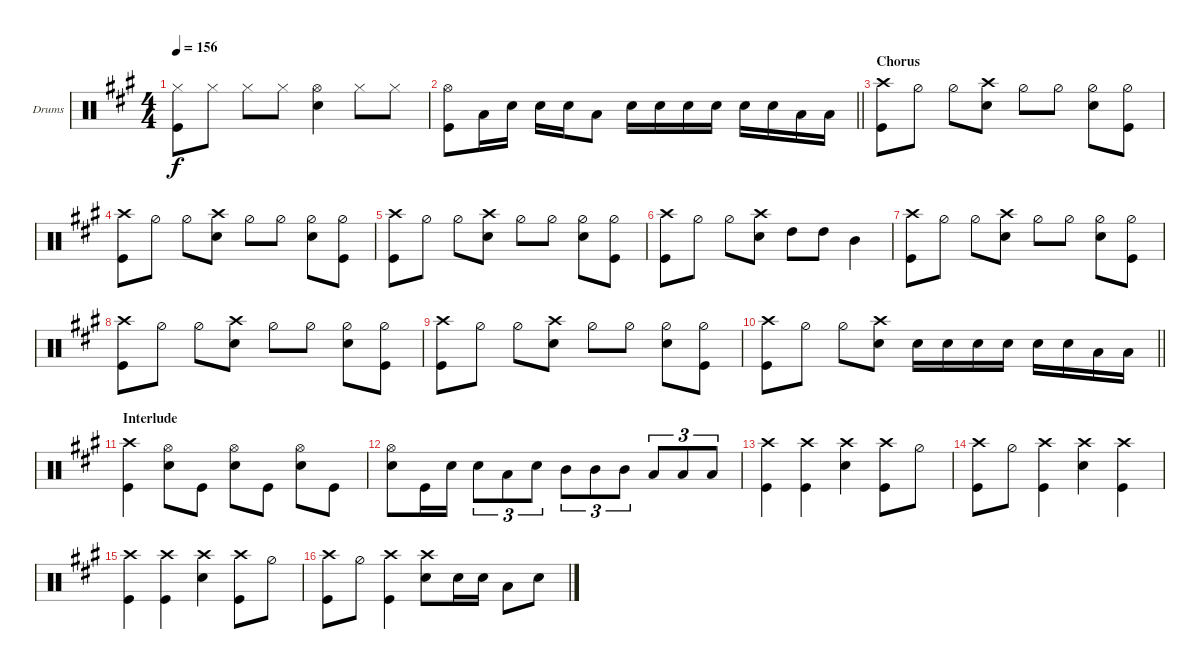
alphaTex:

\defaultSystemsLayout 4
\bracketExtendMode groupsimilarinstruments
\firstSystemTrackNameOrientation horizontal
\otherSystemsTrackNameOrientation horizontal
\track ("Drums" "Drums") {instrument percussion}
\staff {score}
\articulation defaults
\ts (4 4)
\tempo 156
\clef neutral
\ks a
("Kick (hit)" "Hi-Hat (closed)").8{dy f} "Hi-Hat (closed)".8 "Hi-Hat (closed)".8 "Hi-Hat (closed)".8 ("Hi-Hat (open)" "Snare (hit) 2").4 "Hi-Hat (closed)".8 "Hi-Hat (closed)".8 |
\barLineRight lightlight
("Hi-Hat (open)" "Kick (hit)").8 "Low Tom (hit)".16 "Snare (hit) 2".16 "Snare (hit) 2".16 "Snare (hit) 2".16 "Low Tom (hit)".8 "Snare (hit) 2".16 "Snare (hit) 2".16 "Snare (hit) 2".16 "Snare (hit) 2".16 "Snare (hit) 2".16 "Snare (hit) 2".16 "Low Tom (hit)".16 "Low Tom (hit)".16 |
\section ("" "Chorus")
("Kick (hit)" "Crash high (hit)").8 "Hi-Hat (half)".8 "Hi-Hat (half)".8 ("Snare (hit) 2" "Crash high (hit)").8 "Hi-Hat (half)".8 "Hi-Hat (half)".8 ("Snare (hit) 2" "Hi-Hat (half)").8 ("Hi-Hat (half)" "Kick (hit)").8 |
("Kick (hit)" "Crash high (hit)").8 "Hi-Hat (half)".8 "Hi-Hat (half)".8 ("Snare (hit) 2" "Crash high (hit)").8 "Hi-Hat (half)".8 "Hi-Hat (half)".8 ("Snare (hit) 2" "Hi-Hat (half)").8 ("Hi-Hat (half)" "Kick (hit)").8 |
("Kick (hit)" "Crash high (hit)").8 "Hi-Hat (half)".8 "Hi-Hat (half)".8 ("Snare (hit) 2" "Crash high (hit)").8 "Hi-Hat (half)".8 "Hi-Hat (half)".8 ("Snare (hit) 2" "Hi-Hat (half)").8 ("Hi-Hat (half)" "Kick (hit)").8 |
("Kick (hit)" "Crash high (hit)").8 "Hi-Hat (half)".8 "Hi-Hat (half)".8 ("Snare (hit) 2" "Crash high (hit)").8 "High Tom (hit)".8 "High Tom (hit)".8 "Mid Tom (hit)".4 |
("Kick (hit)" "Crash high (hit)").8 "Hi-Hat (half)".8 "Hi-Hat (half)".8 ("Snare (hit) 2" "Crash high (hit)").8 "Hi-Hat (half)".8 "Hi-Hat (half)".8 ("Snare (hit) 2" "Hi-Hat (half)").8 ("Hi-Hat (half)" "Kick (hit)").8 |
("Kick (hit)" "Crash high (hit)").8 "Hi-Hat (half)".8 "Hi-Hat (half)".8 ("Snare (hit) 2" "Crash high (hit)").8 "Hi-Hat (half)".8 "Hi-Hat (half)".8 ("Snare (hit) 2" "Hi-Hat (half)").8 ("Hi-Hat (half)" "Kick (hit)").8 |
("Kick (hit)" "Crash high (hit)").8 "Hi-Hat (half)".8 "Hi-Hat (half)".8 ("Snare (hit) 2" "Crash high (hit)").8 "Hi-Hat (half)".8 "Hi-Hat (half)".8 ("Snare (hit) 2" "Hi-Hat (half)").8 ("Hi-Hat (half)" "Kick (hit)").8 |
\barLineRight lightlight
("Kick (hit)" "Crash high (hit)").8 "Hi-Hat (half)".8 "Hi-Hat (half)".8 ("Snare (hit) 2" "Crash high (hit)").8 "Snare (hit) 2".16 "Snare (hit) 2".16 "Snare (hit) 2".16 "Snare (hit) 2".16 "Snare (hit) 2".16 "Snare (hit) 2".16 "Low Tom (hit)".16 "Low Tom (hit)".16 |
\section ("" "Interlude")
("Kick (hit)" "Crash high (hit)").4 ("Snare (hit) 2" "Hi-Hat (open)").8 "Kick (hit)".8 ("Snare (hit) 2" "Hi-Hat (open)").8 "Kick (hit)".8 ("Snare (hit) 2" "Hi-Hat (open)").8 "Kick (hit)".8 |
("Snare (hit) 2" "Hi-Hat (open)").8 "Kick (hit)".16 "Snare (hit) 2".16 "Snare (hit) 2".8{tu (3 2)} "Low Tom (hit)".8{tu (3 2)} "Snare (hit) 2".8{tu (3 2)} "Mid Tom (hit)".8{tu (3 2)} "Mid Tom (hit)".8{tu (3 2)} "Mid Tom (hit)".8{tu (3 2)} "Low Tom (hit)".8{tu (3 2)} "Low Tom (hit)".8{tu (3 2)} "Low Tom (hit)".8{tu (3 2)} |
("Kick (hit)" "Crash high (hit)").4 ("Kick (hit)" "Crash high (hit)").4 ("Crash high (hit)" "Snare (hit) 2").4 ("Kick (hit)" "Crash high (hit)").8 "Hi-Hat (half)".8 |
("Kick (hit)" "Crash high (hit)").8 "Hi-Hat (half)".8 ("Kick (hit)" "Crash high (hit)").4 ("Crash high (hit)" "Snare (hit) 2").4 ("Kick (hit)" "Crash high (hit)").4 |
("Kick (hit)" "Crash high (hit)").4 ("Kick (hit)" "Crash high (hit)").4 ("Crash high (hit)" "Snare (hit) 2").4 ("Kick (hit)" "Crash high (hit)").8 "Hi-Hat (half)".8 |
("Kick (hit)" "Crash high (hit)").8 "Hi-Hat (half)".8 ("Kick (hit)" "Crash high (hit)").4 ("Crash high (hit)" "Snare (hit) 2").8 "Snare (hit) 2".16 "Snare (hit) 2".16 "Low Tom (hit)".8 "Snare (hit) 2".8
